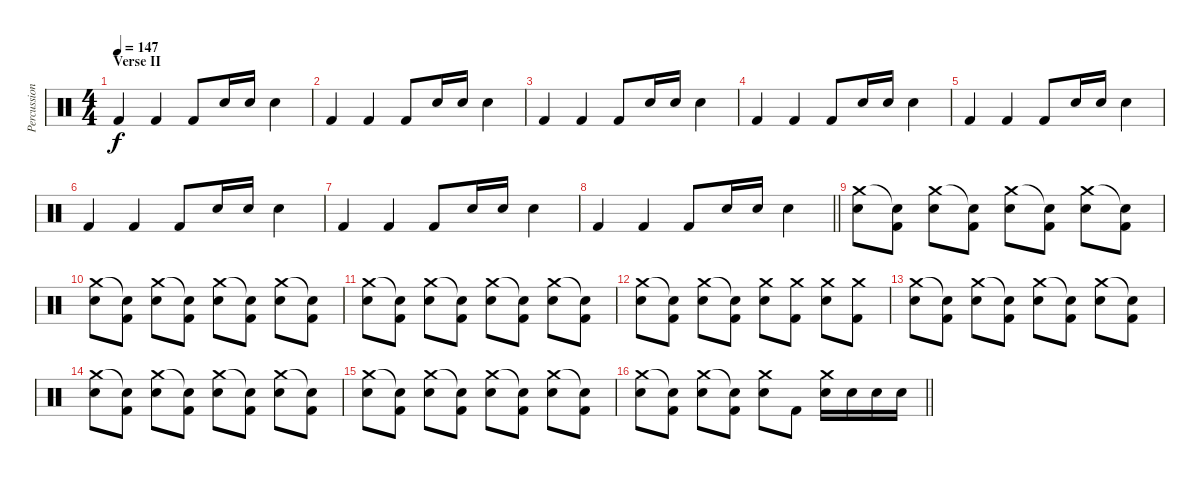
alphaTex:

\track ("Percussion" "Percussion") {instrument percussion}
\staff {score}
\articulation defaults
\ts (4 4)
\section ("" "Verse II")
\tempo 147
\clef neutral
\ks c "Kick (hit) 2".4{dy f} "Kick (hit) 2".4 "Kick (hit) 2".8 "Electric Snare (hit)".16 "Electric Snare (hit)".16 "Electric Snare (hit)".4
|
"Kick (hit) 2".4 "Kick (hit) 2".4 "Kick (hit) 2".8 "Electric Snare (hit)".16 "Electric Snare (hit)".16 "Electric Snare (hit)".4 |
"Kick (hit) 2".4 "Kick (hit) 2".4 "Kick (hit) 2".8 "Electric Snare (hit)".16 "Electric Snare (hit)".16 "Electric Snare (hit)".4 |
"Kick (hit) 2".4 "Kick (hit) 2".4 "Kick (hit) 2".8 "Electric Snare (hit)".16 "Electric Snare (hit)".16 "Electric Snare (hit)".4 |
"Kick (hit) 2".4 "Kick (hit) 2".4 "Kick (hit) 2".8 "Electric Snare (hit)".16 "Electric Snare (hit)".16 "Electric Snare (hit)".4 |
"Kick (hit) 2".4 "Kick (hit) 2".4 "Kick (hit) 2".8 "Electric Snare (hit)".16 "Electric Snare (hit)".16 "Electric Snare (hit)".4 |
"Kick (hit) 2".4 "Kick (hit) 2".4 "Kick (hit) 2".8 "Electric Snare (hit)".16 "Electric Snare (hit)".16 "Electric Snare (hit)".4 |
\barLineRight lightlight "Kick (hit) 2".4 "Kick (hit) 2".4 "Kick (hit) 2".8 "Electric Snare (hit)".16 "Electric Snare (hit)".16 "Electric Snare (hit)".4
|
("Crash medium (hit)" "Electric Snare (hit)").8 ("Snare (hit)"{t} "Kick (hit) 2").8 ("Crash medium (hit)" "Electric Snare (hit)").8 ("Snare (hit)"{t} "Kick (hit) 2").8 ("Crash medium (hit)" "Electric Snare (hit)").8 ("Snare (hit)"{t} "Kick (hit) 2").8 ("Crash medium (hit)" "Electric Snare (hit)").8 ("Snare (hit)"{t} "Kick (hit) 2").8 |
("Crash medium (hit)" "Electric Snare (hit)").8 ("Snare (hit)"{t} "Kick (hit) 2").8 ("Crash medium (hit)" "Electric Snare (hit)").8 ("Snare (hit)"{t} "Kick (hit) 2").8 ("Crash medium (hit)" "Electric Snare (hit)").8 ("Snare (hit)"{t} "Kick (hit) 2").8 ("Crash medium (hit)" "Electric Snare (hit)").8 ("Snare (hit)"{t} "Kick (hit) 2").8 |
("Crash medium (hit)" "Electric Snare (hit)").8 ("Snare (hit)"{t} "Kick (hit) 2").8 ("Crash medium (hit)" "Electric Snare (hit)").8 ("Snare (hit)"{t} "Kick (hit) 2").8 ("Crash medium (hit)" "Electric Snare (hit)").8 ("Snare (hit)"{t} "Kick (hit) 2").8 ("Crash medium (hit)" "Electric Snare (hit)").8 ("Snare (hit)"{t} "Kick (hit) 2").8 |
("Crash medium (hit)" "Electric Snare (hit)").8 ("Snare (hit)"{t} "Kick (hit) 2").8 ("Crash medium (hit)" "Electric Snare (hit)").8 ("Snare (hit)"{t} "Kick (hit) 2").8 ("Crash medium (hit)" "Electric Snare (hit)").8 ("Crash medium (hit)" "Kick (hit) 2").8 ("Crash medium (hit)" "Electric Snare (hit)").8 ("Crash medium (hit)" "Kick (hit) 2").8 |
("Crash medium (hit)" "Electric Snare (hit)").8 ("Snare (hit)"{t} "Kick (hit) 2").8 ("Crash medium (hit)" "Electric Snare (hit)").8 ("Snare (hit)"{t} "Kick (hit) 2").8 ("Crash medium (hit)" "Electric Snare (hit)").8 ("Snare (hit)"{t} "Kick (hit) 2").8 ("Crash medium (hit)" "Electric Snare (hit)").8 ("Snare (hit)"{t} "Kick (hit) 2").8 |
("Crash medium (hit)" "Electric Snare (hit)").8 ("Snare (hit)"{t} "Kick (hit) 2").8 ("Crash medium (hit)" "Electric Snare (hit)").8 ("Snare (hit)"{t} "Kick (hit) 2").8 ("Crash medium (hit)" "Electric Snare (hit)").8 ("Snare (hit)"{t} "Kick (hit) 2").8 ("Crash medium (hit)" "Electric Snare (hit)").8 ("Snare (hit)"{t} "Kick (hit) 2").8 |
("Crash medium (hit)" "Electric Snare (hit)").8 ("Snare (hit)"{t} "Kick (hit) 2").8 ("Crash medium (hit)" "Electric Snare (hit)").8 ("Snare (hit)"{t} "Kick (hit) 2").8 ("Crash medium (hit)" "Electric Snare (hit)").8 ("Snare (hit)"{t} "Kick (hit) 2").8 ("Crash medium (hit)" "Electric Snare (hit)").8 ("Snare (hit)"{t} "Kick (hit) 2").8 |
\barLineRight lightlight
("Crash medium (hit)" "Electric Snare (hit)").8 ("Snare (hit)"{t} "Kick (hit) 2").8 ("Crash medium (hit)" "Electric Snare (hit)").8 ("Snare (hit)"{t} "Kick (hit) 2").8 ("Crash medium (hit)" "Electric Snare (hit)").8 "Kick (hit) 2".8 ("Crash medium (hit)" "Electric Snare (hit)").16 "Electric Snare (hit)".16 "Electric Snare (hit)".16 "Electric Snare (hit)".16
